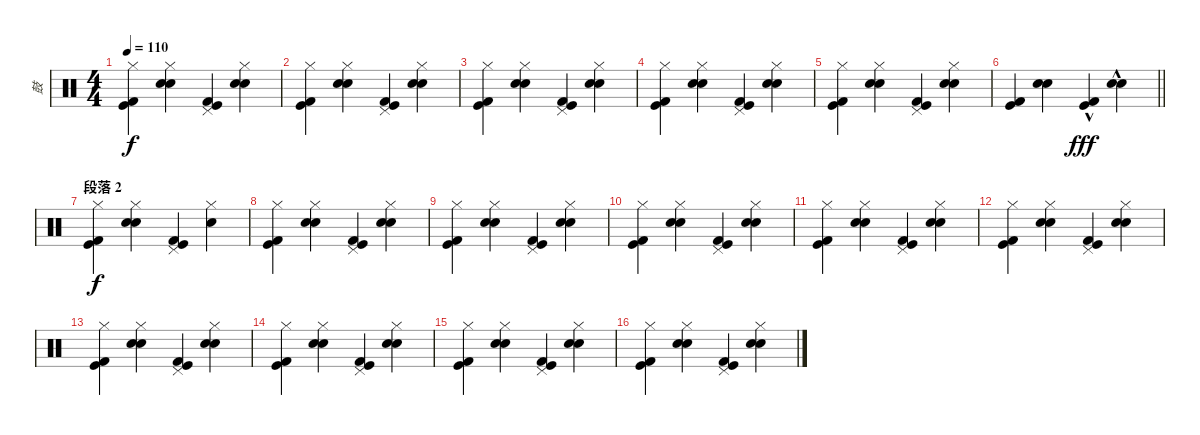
\track ("鼓" "鼓") {instrument percussion}
\staff {score}
\articulation defaults
\ts (4 4)
\tempo 110
\clef neutral
\ks c
("Kick (hit) 2" "Kick (hit)" "Hi-Hat (closed)").4{dy f} ("Electric Snare (hit)" "Snare (hit) 2" "Hi-Hat (closed)").4 ("Kick (hit) 2" "Kick (hit)" "Pedal Hi-Hat (hit)").4 ("Electric Snare (hit)" "Snare (hit) 2" "Hi-Hat (closed)").4 |
("Kick (hit) 2" "Kick (hit)" "Hi-Hat (closed)").4 ("Electric Snare (hit)" "Snare (hit) 2" "Hi-Hat (closed)").4 ("Kick (hit) 2" "Kick (hit)" "Pedal Hi-Hat (hit)").4 ("Electric Snare (hit)" "Snare (hit) 2" "Hi-Hat (closed)").4 |
("Kick (hit) 2" "Kick (hit)" "Hi-Hat (closed)").4 ("Electric Snare (hit)" "Snare (hit) 2" "Hi-Hat (closed)").4 ("Kick (hit) 2" "Kick (hit)" "Pedal Hi-Hat (hit)").4 ("Electric Snare (hit)" "Snare (hit) 2" "Hi-Hat (closed)").4 |
("Kick (hit) 2" "Kick (hit)" "Hi-Hat (closed)").4 ("Electric Snare (hit)" "Snare (hit) 2" "Hi-Hat (closed)").4 ("Kick (hit) 2" "Kick (hit)" "Pedal Hi-Hat (hit)").4 ("Electric Snare (hit)" "Snare (hit) 2" "Hi-Hat (closed)").4 |
("Kick (hit) 2" "Kick (hit)" "Hi-Hat (closed)").4 ("Electric Snare (hit)" "Snare (hit) 2" "Hi-Hat (closed)").4 ("Kick (hit) 2" "Kick (hit)" "Pedal Hi-Hat (hit)").4 ("Electric Snare (hit)" "Snare (hit) 2" "Hi-Hat (closed)").4 |
\barLineRight lightlight
("Kick (hit) 2" "Kick (hit)").4 ("Electric Snare (hit)" "Snare (hit) 2").4 ("Kick (hit) 2"{hac} "Kick (hit)"{hac}).4{dy fff} ("Electric Snare (hit)"{hac} "Snare (hit) 2"{hac}).4 |
\section ("" "段落 2")
("Kick (hit) 2" "Kick (hit)" "Hi-Hat (closed)").4{dy f} ("Electric Snare (hit)" "Snare (hit) 2" "Hi-Hat (closed)").4 ("Kick (hit) 2" "Kick (hit)" "Pedal Hi-Hat (hit)").4 ("Snare (hit) 2" "Hi-Hat (closed)").4 |
("Kick (hit) 2" "Kick (hit)" "Hi-Hat (closed)").4 ("Electric Snare (hit)" "Snare (hit) 2" "Hi-Hat (closed)").4 ("Kick (hit) 2" "Kick (hit)" "Pedal Hi-Hat (hit)").4 ("Electric Snare (hit)" "Snare (hit) 2" "Hi-Hat (closed)").4 |
("Kick (hit) 2" "Kick (hit)" "Hi-Hat (closed)").4 ("Electric Snare (hit)" "Snare (hit) 2" "Hi-Hat (closed)").4 ("Kick (hit) 2" "Kick (hit)" "Pedal Hi-Hat (hit)").4 ("Electric Snare (hit)" "Snare (hit) 2" "Hi-Hat (closed)").4 |
("Kick (hit) 2" "Kick (hit)" "Hi-Hat (closed)").4 ("Electric Snare (hit)" "Snare (hit) 2" "Hi-Hat (closed)").4 ("Kick (hit) 2" "Kick (hit)" "Pedal Hi-Hat (hit)").4 ("Electric Snare (hit)" "Snare (hit) 2" "Hi-Hat (closed)").4 |
("Kick (hit) 2" "Kick (hit)" "Hi-Hat (closed)").4 ("Electric Snare (hit)" "Snare (hit) 2" "Hi-Hat (closed)").4 ("Kick (hit) 2" "Kick (hit)" "Pedal Hi-Hat (hit)").4 ("Electric Snare (hit)" "Snare (hit) 2" "Hi-Hat (closed)").4 |
("Kick (hit) 2" "Kick (hit)" "Hi-Hat (closed)").4 ("Electric Snare (hit)" "Snare (hit) 2" "Hi-Hat (closed)").4 ("Kick (hit) 2" "Kick (hit)" "Pedal Hi-Hat (hit)").4 ("Electric Snare (hit)" "Snare (hit) 2" "Hi-Hat (closed)").4 |
("Kick (hit) 2" "Kick (hit)" "Hi-Hat (closed)").4 ("Electric Snare (hit)" "Snare (hit) 2" "Hi-Hat (closed)").4 ("Kick (hit) 2" "Kick (hit)" "Pedal Hi-Hat (hit)").4 ("Electric Snare (hit)" "Snare (hit) 2" "Hi-Hat (closed)").4 |
("Kick (hit) 2" "Kick (hit)" "Hi-Hat (closed)").4 ("Electric Snare (hit)" "Snare (hit) 2" "Hi-Hat (closed)").4 ("Kick (hit) 2" "Kick (hit)" "Pedal Hi-Hat (hit)").4 ("Electric Snare (hit)" "Snare (hit) 2" "Hi-Hat (closed)").4 |
("Kick (hit) 2" "Kick (hit)" "Hi-Hat (closed)").4 ("Electric Snare (hit)" "Snare (hit) 2" "Hi-Hat (closed)").4 ("Kick (hit) 2" "Kick (hit)" "Pedal Hi-Hat (hit)").4 ("Electric Snare (hit)" "Snare (hit) 2" "Hi-Hat (closed)").4 |
("Kick (hit) 2" "Kick (hit)" "Hi-Hat (closed)").4 ("Electric Snare (hit)" "Snare (hit) 2" "Hi-Hat (closed)").4 ("Kick (hit) 2" "Kick (hit)" "Pedal Hi-Hat (hit)").4 ("Electric Snare (hit)" "Snare (hit) 2" "Hi-Hat (closed)").4
